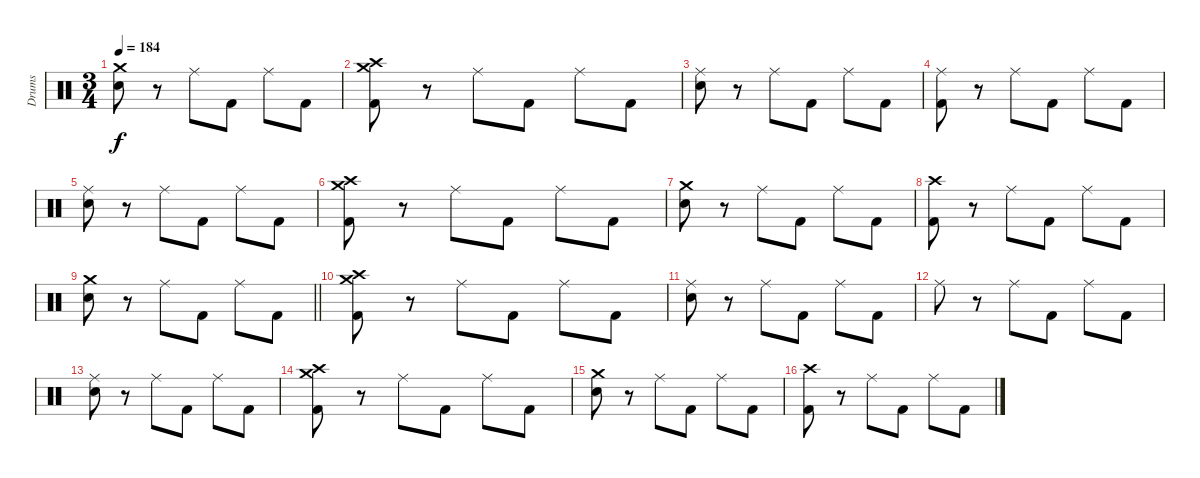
\track ("Drums" "Drums") {instrument percussion}
\staff {score}
\articulation defaults
\ts (3 4)
\tempo 184
\clef neutral
\ks c
("Crash medium (hit)" "Snare (hit) 2").8{dy f} r.8 "Ride (middle)".8 "Kick (hit) 2".8 "Ride (middle)".8 "Kick (hit) 2".8 |
("Crash medium (hit)" "Crash high (hit)" "Kick (hit) 2").8 r.8 "Ride (middle)".8 "Kick (hit) 2".8 "Ride (middle)".8 "Kick (hit) 2".8 |
("Ride (middle)" "Snare (hit) 2").8 r.8 "Ride (middle)".8 "Kick (hit) 2".8 "Ride (middle)".8 "Kick (hit) 2".8 |
("Ride (middle)" "Kick (hit) 2").8 r.8 "Ride (middle)".8 "Kick (hit) 2".8 "Ride (middle)".8 "Kick (hit) 2".8 |
("Ride (middle)" "Snare (hit) 2").8 r.8 "Ride (middle)".8 "Kick (hit) 2".8 "Ride (middle)".8 "Kick (hit) 2".8 |
("Crash high (hit)" "Crash medium (hit)" "Kick (hit) 2").8 r.8 "Ride (middle)".8 "Kick (hit) 2".8 "Ride (middle)".8 "Kick (hit) 2".8 |
("Crash medium (hit)" "Snare (hit) 2").8 r.8 "Ride (middle)".8 "Kick (hit) 2".8 "Ride (middle)".8 "Kick (hit) 2".8 |
("Crash high (hit)" "Kick (hit) 2").8 r.8 "Ride (middle)".8 "Kick (hit) 2".8 "Ride (middle)".8 "Kick (hit) 2".8 |
\barLineRight lightlight
("Crash medium (hit)" "Snare (hit) 2").8 r.8 "Ride (middle)".8 "Kick (hit) 2".8 "Ride (middle)".8 "Kick (hit) 2".8 |
("Crash medium (hit)" "Crash high (hit)" "Kick (hit) 2").8 r.8 "Ride (middle)".8 "Kick (hit) 2".8 "Ride (middle)".8 "Kick (hit) 2".8 |
("Ride (middle)" "Snare (hit) 2").8 r.8 "Ride (middle)".8 "Kick (hit) 2".8 "Ride (middle)".8 "Kick (hit) 2".8 |
"Ride (middle)".8 r.8 "Ride (middle)".8 "Kick (hit) 2".8 "Ride (middle)".8 "Kick (hit) 2".8 |
("Ride (middle)" "Snare (hit) 2").8 r.8 "Ride (middle)".8 "Kick (hit) 2".8 "Ride (middle)".8 "Kick (hit) 2".8 |
("Crash high (hit)" "Crash medium (hit)" "Kick (hit) 2").8 r.8 "Ride (middle)".8 "Kick (hit) 2".8 "Ride (middle)".8 "Kick (hit) 2".8 |
("Crash medium (hit)" "Snare (hit) 2").8 r.8 "Ride (middle)".8 "Kick (hit) 2".8 "Ride (middle)".8 "Kick (hit) 2".8 |
("Crash high (hit)" "Kick (hit) 2").8 r.8 "Ride (middle)".8 "Kick (hit) 2".8 "Ride (middle)".8 "Kick (hit) 2".8
